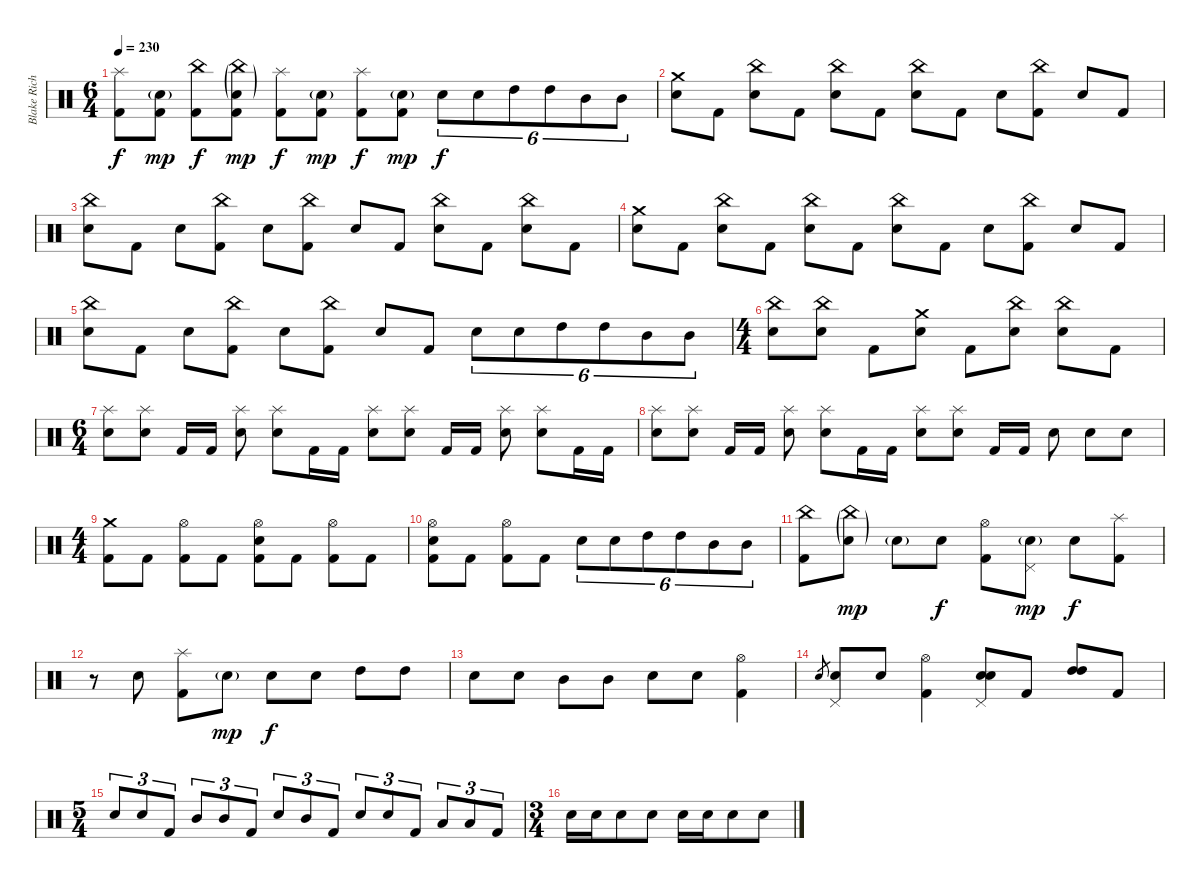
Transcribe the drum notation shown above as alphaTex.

\track ("Blake Richardson - Drums" "Blake Rich") {instrument percussion}
\staff {score}
\articulation defaults
\ts (6 4)
\tempo 230
\clef neutral
\ks c
("Splash (hit)" "Kick (hit) 2").8{dy f} ("Electric Snare (hit)"{g} "Kick (hit) 2").8{dy mp} ("China (hit)" "Kick (hit) 2").8{dy f} ("China (hit)"{g} "Electric Snare (hit)"{g} "Kick (hit) 2").8{dy mp} ("Splash (hit)" "Kick (hit) 2").8{dy f} ("Electric Snare (hit)"{g} "Kick (hit) 2").8{dy mp} ("Splash (hit)" "Kick (hit) 2").8{dy f} ("Electric Snare (hit)"{g} "Kick (hit) 2").8{dy mp} "Electric Snare (hit)".8{tu (6 4) dy f} "Electric Snare (hit)".8{tu (6 4)} "High Tom (hit)".8{tu (6 4)} "High Tom (hit)".8{tu (6 4)} "Mid Tom (hit)".8{tu (6 4)} "Mid Tom (hit)".8{tu (6 4)} |
("Crash medium (hit)" "Electric Snare (hit)").8 "Kick (hit) 2".8 ("China (hit)" "Electric Snare (hit)").8 "Kick (hit) 2".8 ("China (hit)" "Electric Snare (hit)").8 "Kick (hit) 2".8 ("China (hit)" "Electric Snare (hit)").8 "Kick (hit) 2".8 "Electric Snare (hit)".8 ("China (hit)" "Kick (hit) 2").8 "Electric Snare (hit)".8 "Kick (hit) 2".8 |
("China (hit)" "Electric Snare (hit)").8 "Kick (hit) 2".8 "Electric Snare (hit)".8 ("China (hit)" "Kick (hit) 2").8 "Electric Snare (hit)".8 ("China (hit)" "Kick (hit) 2").8 "Electric Snare (hit)".8 "Kick (hit) 2".8 ("China (hit)" "Electric Snare (hit)").8 "Kick (hit) 2".8 ("China (hit)" "Electric Snare (hit)").8 "Kick (hit) 2".8 |
("Crash medium (hit)" "Electric Snare (hit)").8 "Kick (hit) 2".8 ("China (hit)" "Electric Snare (hit)").8 "Kick (hit) 2".8 ("China (hit)" "Electric Snare (hit)").8 "Kick (hit) 2".8 ("China (hit)" "Electric Snare (hit)").8 "Kick (hit) 2".8 "Electric Snare (hit)".8 ("China (hit)" "Kick (hit) 2").8 "Electric Snare (hit)".8 "Kick (hit) 2".8 |
("China (hit)" "Electric Snare (hit)").8 "Kick (hit) 2".8 "Electric Snare (hit)".8 ("China (hit)" "Kick (hit) 2").8 "Electric Snare (hit)".8 ("China (hit)" "Kick (hit) 2").8 "Electric Snare (hit)".8 "Kick (hit) 2".8 "Electric Snare (hit)".8{tu (6 4)} "Electric Snare (hit)".8{tu (6 4)} "High Tom (hit)".8{tu (6 4)} "High Tom (hit)".8{tu (6 4)} "Mid Tom (hit)".8{tu (6 4)} "Mid Tom (hit)".8{tu (6 4)} |
\ts (4 4)
("China (hit)" "Electric Snare (hit)").8 ("China (hit)" "Electric Snare (hit)").8 "Kick (hit) 2".8 ("Crash medium (hit)" "Electric Snare (hit)").8 "Kick (hit) 2".8 ("China (hit)" "Electric Snare (hit)").8 ("China (hit)" "Electric Snare (hit)").8 "Kick (hit) 2".8 |
\ts (6 4)
("Splash (hit)" "Electric Snare (hit)").8 ("Splash (hit)" "Electric Snare (hit)").8 "Kick (hit) 2".16 "Kick (hit) 2".16{beam split} ("Splash (hit)" "Electric Snare (hit)").8 ("Splash (hit)" "Electric Snare (hit)").8 "Kick (hit) 2".16 "Kick (hit) 2".16 ("Splash (hit)" "Electric Snare (hit)").8 ("Splash (hit)" "Electric Snare (hit)").8 "Kick (hit) 2".16 "Kick (hit) 2".16{beam split} ("Splash (hit)" "Electric Snare (hit)").8 ("Splash (hit)" "Electric Snare (hit)").8 "Kick (hit) 2".16 "Kick (hit) 2".16 |
("Splash (hit)" "Electric Snare (hit)").8 ("Splash (hit)" "Electric Snare (hit)").8 "Kick (hit) 2".16 "Kick (hit) 2".16{beam split} ("Splash (hit)" "Electric Snare (hit)").8 ("Splash (hit)" "Electric Snare (hit)").8 "Kick (hit) 2".16 "Kick (hit) 2".16 ("Splash (hit)" "Electric Snare (hit)").8 ("Splash (hit)" "Electric Snare (hit)").8 "Kick (hit) 2".16 "Kick (hit) 2".16{beam split} "Electric Snare (hit)".8 "Electric Snare (hit)".8 "Electric Snare (hit)".8 |
\ts (4 4)
("Crash medium (hit)" "Kick (hit) 2").8 "Kick (hit) 2".8 ("Hi-Hat (open)" "Kick (hit) 2").8 "Kick (hit) 2".8 ("Hi-Hat (open)" "Electric Snare (hit)" "Kick (hit) 2").8 "Kick (hit) 2".8 ("Hi-Hat (open)" "Kick (hit) 2").8 "Kick (hit) 2".8 |
("Hi-Hat (open)" "Electric Snare (hit)" "Kick (hit) 2").8 "Kick (hit) 2".8 ("Hi-Hat (open)" "Kick (hit) 2").8 "Kick (hit) 2".8 "Electric Snare (hit)".8{tu (6 4)} "Electric Snare (hit)".8{tu (6 4)} "High Tom (hit)".8{tu (6 4)} "High Tom (hit)".8{tu (6 4)} "Mid Tom (hit)".8{tu (6 4)} "Mid Tom (hit)".8{tu (6 4)} |
("China (hit)" "Kick (hit) 2").8 ("China (hit)"{g} "Electric Snare (hit)"{g}).8{dy mp} "Electric Snare (hit)"{g}.8 "Electric Snare (hit)".8{dy f} ("Hi-Hat (open)" "Kick (hit) 2").8 ("Electric Snare (hit)"{g} "Pedal Hi-Hat (hit)").8{dy mp} "Electric Snare (hit)".8{dy f} ("Splash (hit)" "Kick (hit) 2").8 |
r.8 "Electric Snare (hit)".8 ("Splash (hit)" "Kick (hit) 2").8 "Electric Snare (hit)"{g}.8{dy mp} "Electric Snare (hit)".8{dy f} "Electric Snare (hit)".8 "High Tom (hit)".8 "High Tom (hit)".8 |
"Electric Snare (hit)".8 "Electric Snare (hit)".8 "Mid Tom (hit)".8 "Mid Tom (hit)".8 "Electric Snare (hit)".8 "Electric Snare (hit)".8 ("Hi-Hat (open)" "Kick (hit) 2").4 |
"Electric Snare (hit)".8{gr} ("Electric Snare (hit)" "Pedal Hi-Hat (hit)").8 "Electric Snare (hit)".8 ("Hi-Hat (open)" "Kick (hit) 2").4 ("Electric Snare (hit)" "Electric Snare (hit)" "Pedal Hi-Hat (hit)").8 "Kick (hit) 2".8 ("High Tom (hit)" "High Tom (hit)").8 "Kick (hit) 2".8 |
\ts (5 4)
"Electric Snare (hit)".8{tu (3 2)} "Electric Snare (hit)".8{tu (3 2)} "Kick (hit) 2".8{tu (3 2)} "Mid Tom (hit)".8{tu (3 2)} "Mid Tom (hit)".8{tu (3 2)} "Kick (hit) 2".8{tu (3 2)} "Electric Snare (hit)".8{tu (3 2)} "Mid Tom (hit)".8{tu (3 2)} "Kick (hit) 2".8{tu (3 2)} "Electric Snare (hit)".8{tu (3 2)} "Electric Snare (hit)".8{tu (3 2)} "Kick (hit) 2".8{tu (3 2)} "Low Tom (hit)".8{tu (3 2)} "Low Tom (hit)".8{tu (3 2)} "Kick (hit) 2".8{tu (3 2)} |
\ts (3 4)
"Electric Snare (hit)".16 "Electric Snare (hit)".16 "Electric Snare (hit)".8{beam merge} "Electric Snare (hit)".8{beam split} "Electric Snare (hit)".16 "Electric Snare (hit)".16{beam merge} "Electric Snare (hit)".8 "Electric Snare (hit)".8
